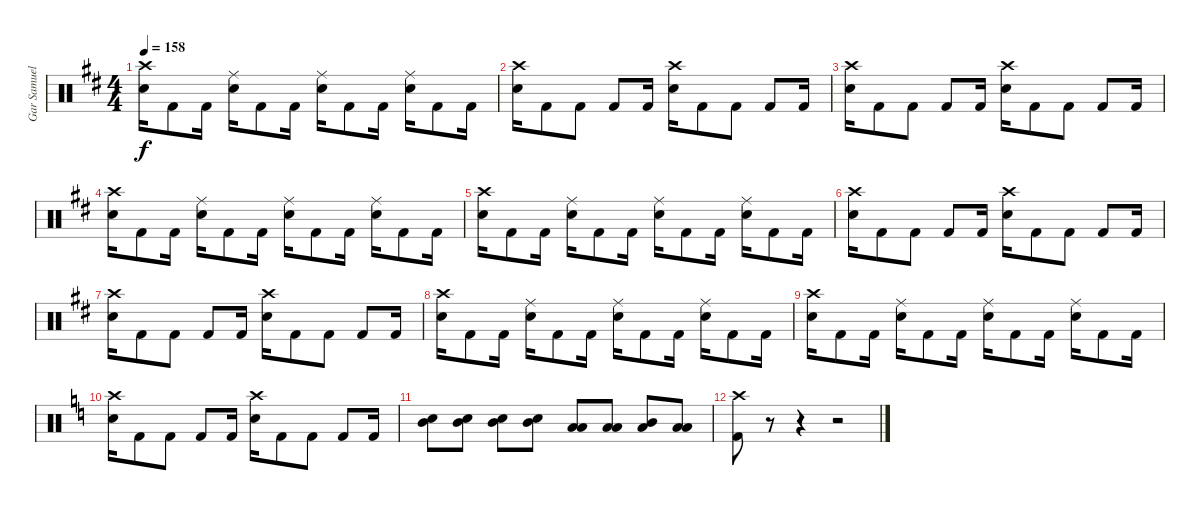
\track ("Gar Samuelson" "Gar Samuel") {instrument percussion}
\staff {score}
\articulation defaults
\ts (4 4)
\tempo 158
\clef neutral
\ks d
("Crash high (hit)" "Snare (hit) 2").16{dy f} "Kick (hit) 2".8 "Kick (hit) 2".16 ("Ride (middle)" "Snare (hit) 2").16 "Kick (hit) 2".8 "Kick (hit) 2".16 ("Ride (middle)" "Snare (hit) 2").16 "Kick (hit) 2".8 "Kick (hit) 2".16 ("Ride (middle)" "Snare (hit) 2").16 "Kick (hit) 2".8 "Kick (hit) 2".16 |
("Crash high (hit)" "Snare (hit) 2").16 "Kick (hit) 2".8 "Kick (hit) 2".8 "Kick (hit) 2".8 "Kick (hit) 2".16 ("Crash high (hit)" "Snare (hit) 2").16 "Kick (hit) 2".8 "Kick (hit) 2".8 "Kick (hit) 2".8 "Kick (hit) 2".16 |
("Crash high (hit)" "Snare (hit) 2").16 "Kick (hit) 2".8 "Kick (hit) 2".8 "Kick (hit) 2".8 "Kick (hit) 2".16 ("Crash high (hit)" "Snare (hit) 2").16 "Kick (hit) 2".8 "Kick (hit) 2".8 "Kick (hit) 2".8 "Kick (hit) 2".16 |
("Crash high (hit)" "Snare (hit) 2").16 "Kick (hit) 2".8 "Kick (hit) 2".16 ("Ride (middle)" "Snare (hit) 2").16 "Kick (hit) 2".8 "Kick (hit) 2".16 ("Ride (middle)" "Snare (hit) 2").16 "Kick (hit) 2".8 "Kick (hit) 2".16 ("Ride (middle)" "Snare (hit) 2").16 "Kick (hit) 2".8 "Kick (hit) 2".16 |
("Crash high (hit)" "Snare (hit) 2").16 "Kick (hit) 2".8 "Kick (hit) 2".16 ("Ride (middle)" "Snare (hit) 2").16 "Kick (hit) 2".8 "Kick (hit) 2".16 ("Ride (middle)" "Snare (hit) 2").16 "Kick (hit) 2".8 "Kick (hit) 2".16 ("Ride (middle)" "Snare (hit) 2").16 "Kick (hit) 2".8 "Kick (hit) 2".16 |
("Crash high (hit)" "Snare (hit) 2").16 "Kick (hit) 2".8 "Kick (hit) 2".8 "Kick (hit) 2".8 "Kick (hit) 2".16 ("Crash high (hit)" "Snare (hit) 2").16 "Kick (hit) 2".8 "Kick (hit) 2".8 "Kick (hit) 2".8 "Kick (hit) 2".16 |
("Crash high (hit)" "Snare (hit) 2").16 "Kick (hit) 2".8 "Kick (hit) 2".8 "Kick (hit) 2".8 "Kick (hit) 2".16 ("Crash high (hit)" "Snare (hit) 2").16 "Kick (hit) 2".8 "Kick (hit) 2".8 "Kick (hit) 2".8 "Kick (hit) 2".16 |
("Crash high (hit)" "Snare (hit) 2").16 "Kick (hit) 2".8 "Kick (hit) 2".16 ("Ride (middle)" "Snare (hit) 2").16 "Kick (hit) 2".8 "Kick (hit) 2".16 ("Ride (middle)" "Snare (hit) 2").16 "Kick (hit) 2".8 "Kick (hit) 2".16 ("Ride (middle)" "Snare (hit) 2").16 "Kick (hit) 2".8 "Kick (hit) 2".16 |
("Crash high (hit)" "Snare (hit) 2").16 "Kick (hit) 2".8 "Kick (hit) 2".16 ("Ride (middle)" "Snare (hit) 2").16 "Kick (hit) 2".8 "Kick (hit) 2".16 ("Ride (middle)" "Snare (hit) 2").16 "Kick (hit) 2".8 "Kick (hit) 2".16 ("Ride (middle)" "Snare (hit) 2").16 "Kick (hit) 2".8 "Kick (hit) 2".16 |
\ks c
("Crash high (hit)" "Snare (hit) 2").16 "Kick (hit) 2".8 "Kick (hit) 2".8 "Kick (hit) 2".8 "Kick (hit) 2".16 ("Crash high (hit)" "Snare (hit) 2").16 "Kick (hit) 2".8 "Kick (hit) 2".8 "Kick (hit) 2".8 "Kick (hit) 2".16 |
("Mid Tom (hit)" "Snare (hit) 2").8 ("Mid Tom (hit)" "Snare (hit) 2").8 ("Mid Tom (hit)" "Snare (hit) 2").8 ("Mid Tom (hit)" "Snare (hit) 2").8 ("Low Tom (hit)" "Low Floor Tom (hit)").8 ("Low Tom (hit)" "Low Floor Tom (hit)").8 ("Mid Tom (hit)" "Low Tom (hit)").8 ("Low Tom (hit)" "Low Floor Tom (hit)").8 |
("Crash high (hit)" "Kick (hit) 2").8 r.8 r.4 r.2
